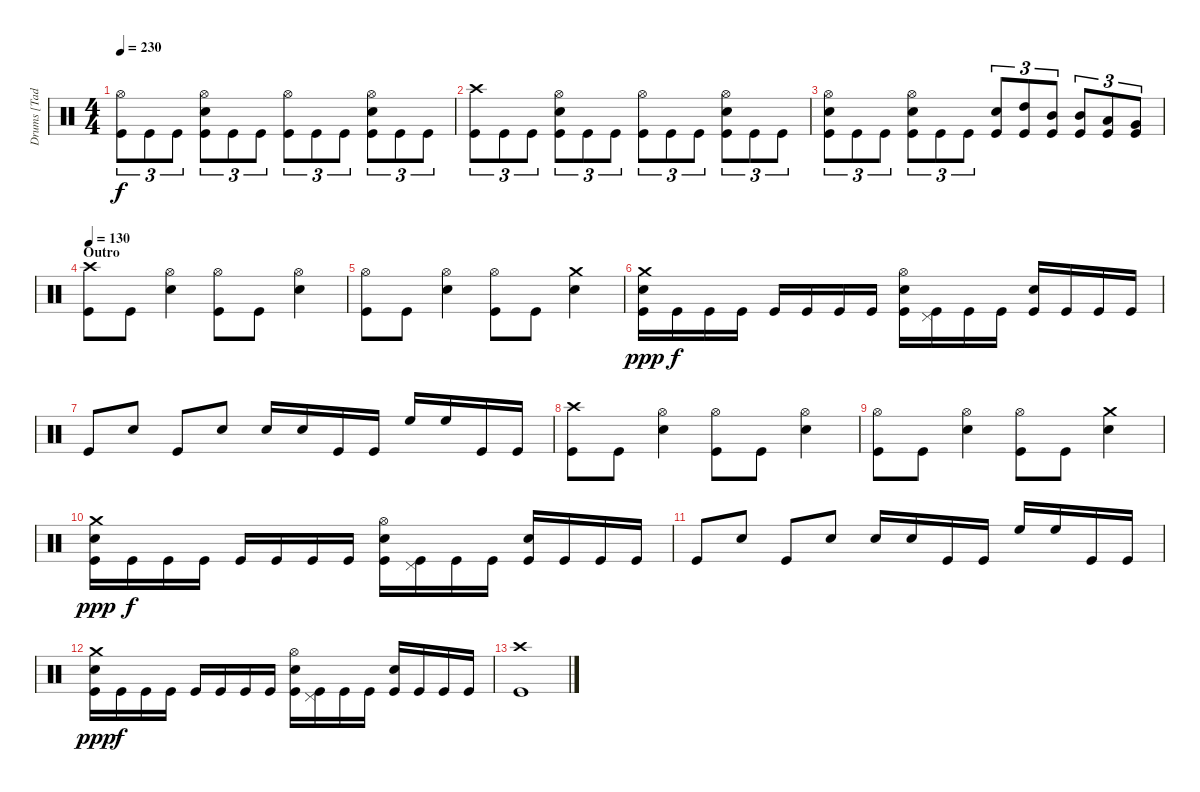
\track ("Drums [Tad Leger]" "Drums [Tad") {instrument percussion}
\staff {score}
\articulation defaults
\ts (4 4)
\tempo 230
\clef neutral
\ks c
("Hi-Hat (open)" "Kick (hit)").8{tu (3 2) dy f} "Kick (hit)".8{tu (3 2)} "Kick (hit)".8{tu (3 2)} ("Hi-Hat (open)" "Electric Snare (hit)" "Kick (hit)").8{tu (3 2)} "Kick (hit)".8{tu (3 2)} "Kick (hit)".8{tu (3 2)} ("Hi-Hat (open)" "Kick (hit)").8{tu (3 2)} "Kick (hit)".8{tu (3 2)} "Kick (hit)".8{tu (3 2)} ("Hi-Hat (open)" "Electric Snare (hit)" "Kick (hit)").8{tu (3 2)} "Kick (hit)".8{tu (3 2)} "Kick (hit)".8{tu (3 2)} |
("Crash high (hit)" "Kick (hit)").8{tu (3 2)} "Kick (hit)".8{tu (3 2)} "Kick (hit)".8{tu (3 2)} ("Hi-Hat (open)" "Electric Snare (hit)" "Kick (hit)").8{tu (3 2)} "Kick (hit)".8{tu (3 2)} "Kick (hit)".8{tu (3 2)} ("Hi-Hat (open)" "Kick (hit)").8{tu (3 2)} "Kick (hit)".8{tu (3 2)} "Kick (hit)".8{tu (3 2)} ("Hi-Hat (open)" "Electric Snare (hit)" "Kick (hit)").8{tu (3 2)} "Kick (hit)".8{tu (3 2)} "Kick (hit)".8{tu (3 2)} |
("Hi-Hat (open)" "Electric Snare (hit)" "Kick (hit)").8{tu (3 2)} "Kick (hit)".8{tu (3 2)} "Kick (hit)".8{tu (3 2)} ("Hi-Hat (open)" "Electric Snare (hit)" "Kick (hit)").8{tu (3 2)} "Kick (hit)".8{tu (3 2)} "Kick (hit)".8{tu (3 2)} ("Electric Snare (hit)" "Kick (hit)").8{tu (3 2)} ("High Tom (hit)" "Kick (hit)").8{tu (3 2)} ("Mid Tom (hit)" "Kick (hit)").8{tu (3 2)} ("Mid Tom (hit)" "Kick (hit)").8{tu (3 2)} ("Low Tom (hit)" "Kick (hit)").8{tu (3 2)} ("Very Low Tom (hit)" "Kick (hit)").8{tu (3 2)} |
\section ("" "Outro")
\tempo 130
("Crash high (hit)" "Kick (hit)").8 "Kick (hit)".8 ("Hi-Hat (open)" "Electric Snare (hit)").4 ("Hi-Hat (open)" "Kick (hit)").8 "Kick (hit)".8 ("Hi-Hat (open)" "Electric Snare (hit)").4 |
("Hi-Hat (open)" "Kick (hit)").8 "Kick (hit)".8 ("Hi-Hat (open)" "Electric Snare (hit)").4 ("Hi-Hat (open)" "Kick (hit)").8 "Kick (hit)".8 ("Crash medium (hit)" "Electric Snare (hit)").4 |
("Crash medium (hit)" "Electric Snare (hit)" "Kick (hit)").16{dy ppp} "Kick (hit)".16{dy f} "Kick (hit)".16 "Kick (hit)".16 "Kick (hit)".16 "Kick (hit)".16 "Kick (hit)".16 "Kick (hit)".16 ("Hi-Hat (open)" "Electric Snare (hit)" "Kick (hit)").16 ("Pedal Hi-Hat (hit)" "Kick (hit)").16 "Kick (hit)".16 "Kick (hit)".16 ("Electric Snare (hit)" "Kick (hit)").16 "Kick (hit)".16 "Kick (hit)".16 "Kick (hit)".16 |
"Kick (hit)".8 "Electric Snare (hit)".8 "Kick (hit)".8 "Electric Snare (hit)".8 "Electric Snare (hit)".16 "Electric Snare (hit)".16 "Kick (hit)".16 "Kick (hit)".16 "High Floor Tom (hit)".16 "High Floor Tom (hit)".16 "Kick (hit)".16 "Kick (hit)".16 |
("Crash high (hit)" "Kick (hit)").8 "Kick (hit)".8 ("Hi-Hat (open)" "Electric Snare (hit)").4 ("Hi-Hat (open)" "Kick (hit)").8 "Kick (hit)".8 ("Hi-Hat (open)" "Electric Snare (hit)").4 |
("Hi-Hat (open)" "Kick (hit)").8 "Kick (hit)".8 ("Hi-Hat (open)" "Electric Snare (hit)").4 ("Hi-Hat (open)" "Kick (hit)").8 "Kick (hit)".8 ("Crash medium (hit)" "Electric Snare (hit)").4 |
("Crash medium (hit)" "Electric Snare (hit)" "Kick (hit)").16{dy ppp} "Kick (hit)".16{dy f} "Kick (hit)".16 "Kick (hit)".16 "Kick (hit)".16 "Kick (hit)".16 "Kick (hit)".16 "Kick (hit)".16 ("Hi-Hat (open)" "Electric Snare (hit)" "Kick (hit)").16 ("Pedal Hi-Hat (hit)" "Kick (hit)").16 "Kick (hit)".16 "Kick (hit)".16 ("Electric Snare (hit)" "Kick (hit)").16 "Kick (hit)".16 "Kick (hit)".16 "Kick (hit)".16 |
"Kick (hit)".8 "Electric Snare (hit)".8 "Kick (hit)".8 "Electric Snare (hit)".8 "Electric Snare (hit)".16 "Electric Snare (hit)".16 "Kick (hit)".16 "Kick (hit)".16 "High Floor Tom (hit)".16 "High Floor Tom (hit)".16 "Kick (hit)".16 "Kick (hit)".16 |
("Crash medium (hit)" "Electric Snare (hit)" "Kick (hit)").16{dy ppp} "Kick (hit)".16{dy f} "Kick (hit)".16 "Kick (hit)".16 "Kick (hit)".16 "Kick (hit)".16 "Kick (hit)".16 "Kick (hit)".16 ("Hi-Hat (open)" "Electric Snare (hit)" "Kick (hit)").16 ("Pedal Hi-Hat (hit)" "Kick (hit)").16 "Kick (hit)".16 "Kick (hit)".16 ("Electric Snare (hit)" "Kick (hit)").16 "Kick (hit)".16 "Kick (hit)".16 "Kick (hit)".16 |
("Crash high (hit)" "Kick (hit)").1
